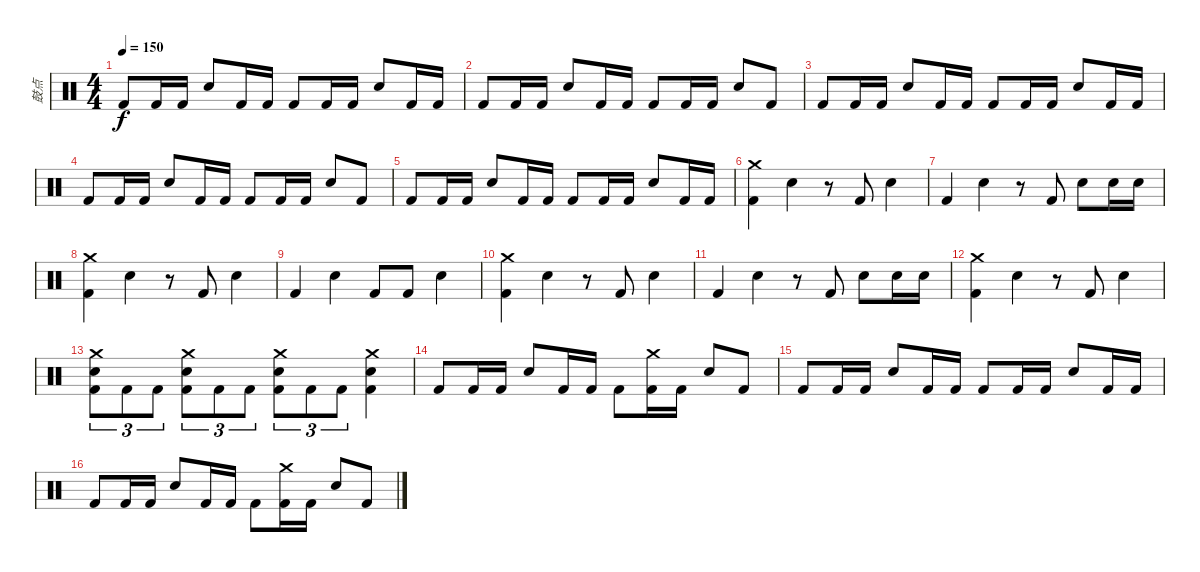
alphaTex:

\track ("鼓点" "鼓点") {instrument percussion}
\staff {score}
\articulation defaults
\ts (4 4)
\tempo 150
\clef neutral
\ks c "Kick (hit) 2".8{dy f} "Kick (hit) 2".16 "Kick (hit) 2".16 "Snare (hit) 2".8 "Kick (hit) 2".16 "Kick (hit) 2".16 "Kick (hit) 2".8 "Kick (hit) 2".16 "Kick (hit) 2".16 "Snare (hit) 2".8 "Kick (hit) 2".16 "Kick (hit) 2".16
|
"Kick (hit) 2".8 "Kick (hit) 2".16 "Kick (hit) 2".16 "Snare (hit) 2".8 "Kick (hit) 2".16 "Kick (hit) 2".16 "Kick (hit) 2".8 "Kick (hit) 2".16 "Kick (hit) 2".16 "Snare (hit) 2".8 "Kick (hit) 2".8 |
"Kick (hit) 2".8 "Kick (hit) 2".16 "Kick (hit) 2".16 "Snare (hit) 2".8 "Kick (hit) 2".16 "Kick (hit) 2".16 "Kick (hit) 2".8 "Kick (hit) 2".16 "Kick (hit) 2".16 "Snare (hit) 2".8 "Kick (hit) 2".16 "Kick (hit) 2".16 |
"Kick (hit) 2".8 "Kick (hit) 2".16 "Kick (hit) 2".16 "Snare (hit) 2".8 "Kick (hit) 2".16 "Kick (hit) 2".16 "Kick (hit) 2".8 "Kick (hit) 2".16 "Kick (hit) 2".16 "Snare (hit) 2".8 "Kick (hit) 2".8 |
"Kick (hit) 2".8 "Kick (hit) 2".16 "Kick (hit) 2".16 "Snare (hit) 2".8 "Kick (hit) 2".16 "Kick (hit) 2".16 "Kick (hit) 2".8 "Kick (hit) 2".16 "Kick (hit) 2".16 "Snare (hit) 2".8 "Kick (hit) 2".16 "Kick (hit) 2".16 |
("Kick (hit) 2" "Crash medium (hit)").4 "Snare (hit) 2".4 r.8 "Kick (hit) 2".8 "Snare (hit) 2".4 |
"Kick (hit) 2".4 "Snare (hit) 2".4 r.8 "Kick (hit) 2".8 "Snare (hit) 2".8 "Snare (hit) 2".16 "Snare (hit) 2".16 |
("Kick (hit) 2" "Crash medium (hit)").4 "Snare (hit) 2".4 r.8 "Kick (hit) 2".8 "Snare (hit) 2".4 |
"Kick (hit) 2".4 "Snare (hit) 2".4 "Kick (hit) 2".8 "Kick (hit) 2".8 "Snare (hit) 2".4 |
("Kick (hit) 2" "Crash medium (hit)").4 "Snare (hit) 2".4 r.8 "Kick (hit) 2".8 "Snare (hit) 2".4 |
"Kick (hit) 2".4 "Snare (hit) 2".4 r.8 "Kick (hit) 2".8 "Snare (hit) 2".8 "Snare (hit) 2".16 "Snare (hit) 2".16 |
("Kick (hit) 2" "Crash medium (hit)").4 "Snare (hit) 2".4 r.8 "Kick (hit) 2".8 "Snare (hit) 2".4 |
("Kick (hit) 2" "Snare (hit) 2" "Crash medium (hit)").8{tu (3 2)} "Kick (hit) 2".8{tu (3 2)} "Kick (hit) 2".8{tu (3 2)} ("Kick (hit) 2" "Snare (hit) 2" "Crash medium (hit)").8{tu (3 2)} "Kick (hit) 2".8{tu (3 2)} "Kick (hit) 2".8{tu (3 2)} ("Kick (hit) 2" "Snare (hit) 2" "Crash medium (hit)").8{tu (3 2)} "Kick (hit) 2".8{tu (3 2)} "Kick (hit) 2".8{tu (3 2)} ("Kick (hit) 2" "Snare (hit) 2" "Crash medium (hit)").4 |
"Kick (hit) 2".8 "Kick (hit) 2".16 "Kick (hit) 2".16 "Snare (hit) 2".8 "Kick (hit) 2".16 "Kick (hit) 2".16 "Kick (hit) 2".8 ("Kick (hit) 2" "Crash medium (hit)").16 "Kick (hit) 2".16 "Snare (hit) 2".8 "Kick (hit) 2".8 |
"Kick (hit) 2".8 "Kick (hit) 2".16 "Kick (hit) 2".16 "Snare (hit) 2".8 "Kick (hit) 2".16 "Kick (hit) 2".16 "Kick (hit) 2".8 "Kick (hit) 2".16 "Kick (hit) 2".16 "Snare (hit) 2".8 "Kick (hit) 2".16 "Kick (hit) 2".16 |
"Kick (hit) 2".8 "Kick (hit) 2".16 "Kick (hit) 2".16 "Snare (hit) 2".8 "Kick (hit) 2".16 "Kick (hit) 2".16 "Kick (hit) 2".8 ("Kick (hit) 2" "Crash medium (hit)").16 "Kick (hit) 2".16 "Snare (hit) 2".8 "Kick (hit) 2".8
